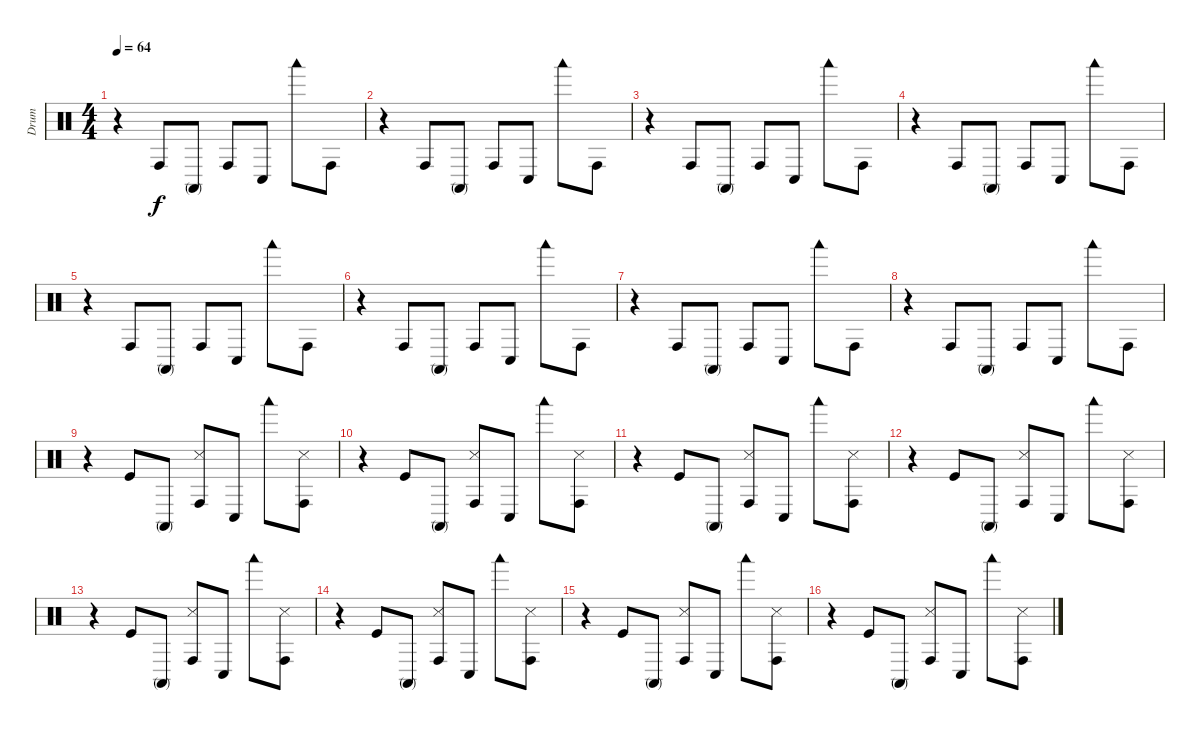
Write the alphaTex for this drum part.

\track ("Drum" "Drum") {instrument percussion}
\staff {score}
\articulation defaults
\ts (4 4)
\tempo 64
\clef neutral
\ks c
r.4{dy f} "Conga high (hit)".8 "Conga high (mute)".8 "Conga high (hit)".8 "Conga low (hit)".8 "Woodblock low (hit)".8 "Conga high (hit)".8 |
r.4 "Conga high (hit)".8 "Conga high (mute)".8 "Conga high (hit)".8 "Conga low (hit)".8 "Woodblock low (hit)".8 "Conga high (hit)".8 |
r.4 "Conga high (hit)".8 "Conga high (mute)".8 "Conga high (hit)".8 "Conga low (hit)".8 "Woodblock low (hit)".8 "Conga high (hit)".8 |
r.4 "Conga high (hit)".8 "Conga high (mute)".8 "Conga high (hit)".8 "Conga low (hit)".8 "Woodblock low (hit)".8 "Conga high (hit)".8 |
r.4 "Conga high (hit)".8 "Conga high (mute)".8 "Conga high (hit)".8 "Conga low (hit)".8 "Woodblock low (hit)".8 "Conga high (hit)".8 |
r.4 "Conga high (hit)".8 "Conga high (mute)".8 "Conga high (hit)".8 "Conga low (hit)".8 "Woodblock low (hit)".8 "Conga high (hit)".8 |
r.4 "Conga high (hit)".8 "Conga high (mute)".8 "Conga high (hit)".8 "Conga low (hit)".8 "Woodblock low (hit)".8 "Conga high (hit)".8 |
r.4 "Conga high (hit)".8 "Conga high (mute)".8 "Conga high (hit)".8 "Conga low (hit)".8 "Woodblock low (hit)".8 "Conga high (hit)".8 |
r.4 "Kick (hit)".8 "Conga high (mute)".8 ("Snare (side stick) 3" "Conga high (hit)").8 "Conga low (hit)".8 "Woodblock low (hit)".8 ("Snare (side stick) 3" "Conga high (hit)").8 |
r.4 "Kick (hit)".8 "Conga high (mute)".8 ("Snare (side stick) 3" "Conga high (hit)").8 "Conga low (hit)".8 "Woodblock low (hit)".8 ("Snare (side stick) 3" "Conga high (hit)").8 |
r.4 "Kick (hit)".8 "Conga high (mute)".8 ("Snare (side stick) 3" "Conga high (hit)").8 "Conga low (hit)".8 "Woodblock low (hit)".8 ("Snare (side stick) 3" "Conga high (hit)").8 |
r.4 "Kick (hit)".8 "Conga high (mute)".8 ("Snare (side stick) 3" "Conga high (hit)").8 "Conga low (hit)".8 "Woodblock low (hit)".8 ("Snare (side stick) 3" "Conga high (hit)").8 |
r.4 "Kick (hit)".8 "Conga high (mute)".8 ("Snare (side stick) 3" "Conga high (hit)").8 "Conga low (hit)".8 "Woodblock low (hit)".8 ("Snare (side stick) 3" "Conga high (hit)").8 |
r.4 "Kick (hit)".8 "Conga high (mute)".8 ("Snare (side stick) 3" "Conga high (hit)").8 "Conga low (hit)".8 "Woodblock low (hit)".8 ("Snare (side stick) 3" "Conga high (hit)").8 |
r.4 "Kick (hit)".8 "Conga high (mute)".8 ("Snare (side stick) 3" "Conga high (hit)").8 "Conga low (hit)".8 "Woodblock low (hit)".8 ("Snare (side stick) 3" "Conga high (hit)").8 |
r.4 "Kick (hit)".8 "Conga high (mute)".8 ("Snare (side stick) 3" "Conga high (hit)").8 "Conga low (hit)".8 "Woodblock low (hit)".8 ("Snare (side stick) 3" "Conga high (hit)").8
